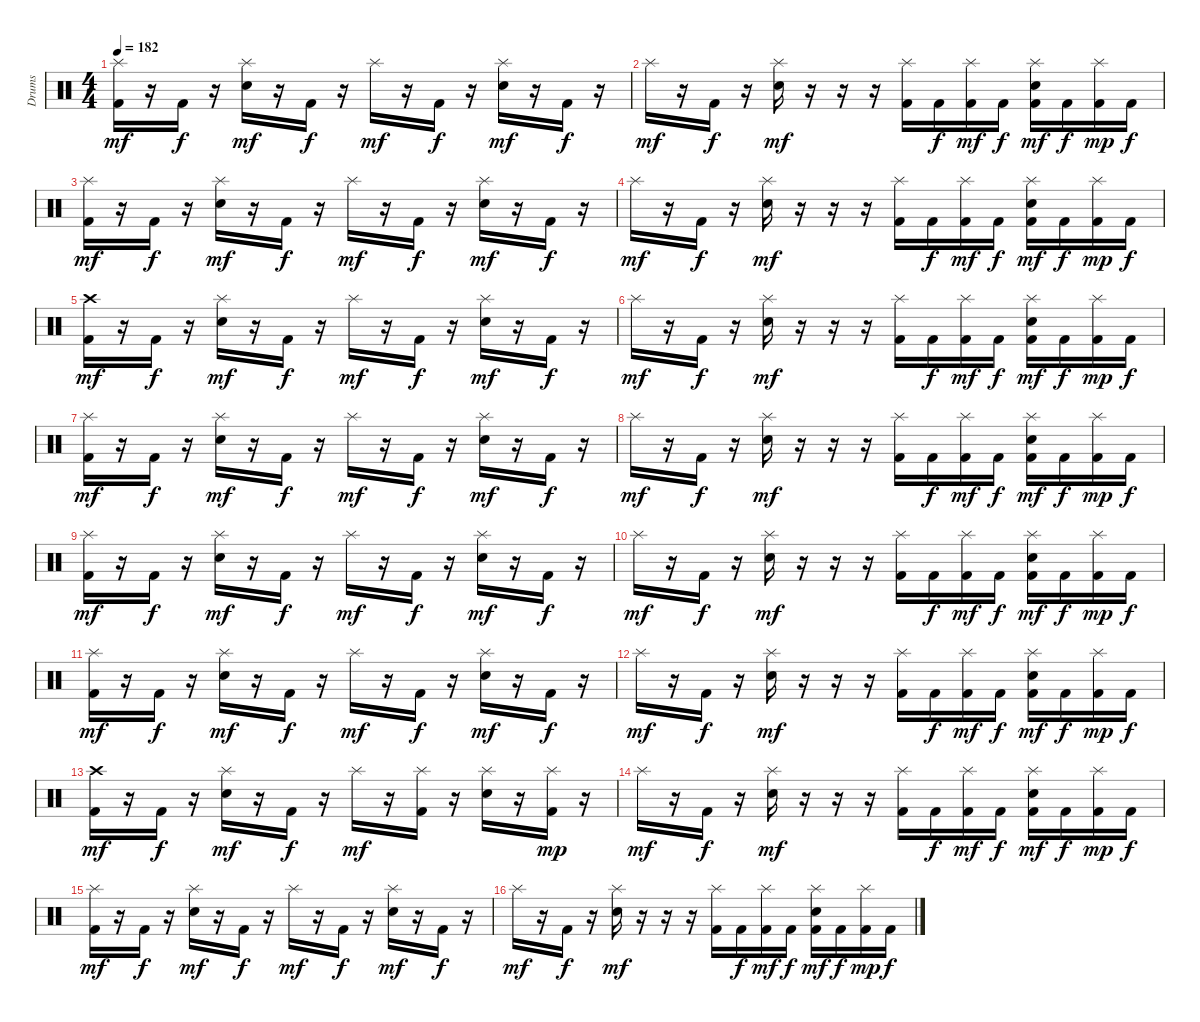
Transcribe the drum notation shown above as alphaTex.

\track ("Drums" "Drums") {instrument percussion}
\staff {score}
\articulation defaults
\ts (4 4)
\tempo 182
\clef neutral
\ks c
("Kick (hit) 2" "Splash (hit)").16{dy mf} r.16 "Kick (hit) 2".16{dy f} r.16 ("Snare (hit) 2" "Splash (hit)").16{dy mf} r.16 "Kick (hit) 2".16{dy f} r.16 "Splash (hit)".16{dy mf} r.16 "Kick (hit) 2".16{dy f} r.16 ("Snare (hit) 2" "Splash (hit)").16{dy mf} r.16 "Kick (hit) 2".16{dy f} r.16 |
"Splash (hit)".16{dy mf} r.16 "Kick (hit) 2".16{dy f} r.16 ("Snare (hit) 2" "Splash (hit)").16{dy mf} r.16 r.16 r.16 ("Kick (hit) 2" "Splash (hit)").16 "Kick (hit) 2".16{dy f} ("Kick (hit) 2" "Splash (hit)").16{dy mf} "Kick (hit) 2".16{dy f} ("Kick (hit) 2" "Snare (hit) 2" "Splash (hit)").16{dy mf} "Kick (hit) 2".16{dy f} ("Kick (hit) 2" "Splash (hit)").16{dy mp} "Kick (hit) 2".16{dy f} |
("Kick (hit) 2" "Splash (hit)").16{dy mf} r.16 "Kick (hit) 2".16{dy f} r.16 ("Snare (hit) 2" "Splash (hit)").16{dy mf} r.16 "Kick (hit) 2".16{dy f} r.16 "Splash (hit)".16{dy mf} r.16 "Kick (hit) 2".16{dy f} r.16 ("Snare (hit) 2" "Splash (hit)").16{dy mf} r.16 "Kick (hit) 2".16{dy f} r.16 |
"Splash (hit)".16{dy mf} r.16 "Kick (hit) 2".16{dy f} r.16 ("Snare (hit) 2" "Splash (hit)").16{dy mf} r.16 r.16 r.16 ("Kick (hit) 2" "Splash (hit)").16 "Kick (hit) 2".16{dy f} ("Kick (hit) 2" "Splash (hit)").16{dy mf} "Kick (hit) 2".16{dy f} ("Kick (hit) 2" "Snare (hit) 2" "Splash (hit)").16{dy mf} "Kick (hit) 2".16{dy f} ("Kick (hit) 2" "Splash (hit)").16{dy mp} "Kick (hit) 2".16{dy f} |
("Kick (hit) 2" "Crash high (hit)").16{dy mf} r.16 "Kick (hit) 2".16{dy f} r.16 ("Snare (hit) 2" "Splash (hit)").16{dy mf} r.16 "Kick (hit) 2".16{dy f} r.16 "Splash (hit)".16{dy mf} r.16 "Kick (hit) 2".16{dy f} r.16 ("Snare (hit) 2" "Splash (hit)").16{dy mf} r.16 "Kick (hit) 2".16{dy f} r.16 |
"Splash (hit)".16{dy mf} r.16 "Kick (hit) 2".16{dy f} r.16 ("Snare (hit) 2" "Splash (hit)").16{dy mf} r.16 r.16 r.16 ("Kick (hit) 2" "Splash (hit)").16 "Kick (hit) 2".16{dy f} ("Kick (hit) 2" "Splash (hit)").16{dy mf} "Kick (hit) 2".16{dy f} ("Kick (hit) 2" "Snare (hit) 2" "Splash (hit)").16{dy mf} "Kick (hit) 2".16{dy f} ("Kick (hit) 2" "Splash (hit)").16{dy mp} "Kick (hit) 2".16{dy f} |
("Kick (hit) 2" "Splash (hit)").16{dy mf} r.16 "Kick (hit) 2".16{dy f} r.16 ("Snare (hit) 2" "Splash (hit)").16{dy mf} r.16 "Kick (hit) 2".16{dy f} r.16 "Splash (hit)".16{dy mf} r.16 "Kick (hit) 2".16{dy f} r.16 ("Snare (hit) 2" "Splash (hit)").16{dy mf} r.16 "Kick (hit) 2".16{dy f} r.16 |
"Splash (hit)".16{dy mf} r.16 "Kick (hit) 2".16{dy f} r.16 ("Snare (hit) 2" "Splash (hit)").16{dy mf} r.16 r.16 r.16 ("Kick (hit) 2" "Splash (hit)").16 "Kick (hit) 2".16{dy f} ("Kick (hit) 2" "Splash (hit)").16{dy mf} "Kick (hit) 2".16{dy f} ("Kick (hit) 2" "Snare (hit) 2" "Splash (hit)").16{dy mf} "Kick (hit) 2".16{dy f} ("Kick (hit) 2" "Splash (hit)").16{dy mp} "Kick (hit) 2".16{dy f} |
("Kick (hit) 2" "Splash (hit)").16{dy mf} r.16 "Kick (hit) 2".16{dy f} r.16 ("Snare (hit) 2" "Splash (hit)").16{dy mf} r.16 "Kick (hit) 2".16{dy f} r.16 "Splash (hit)".16{dy mf} r.16 "Kick (hit) 2".16{dy f} r.16 ("Snare (hit) 2" "Splash (hit)").16{dy mf} r.16 "Kick (hit) 2".16{dy f} r.16 |
"Splash (hit)".16{dy mf} r.16 "Kick (hit) 2".16{dy f} r.16 ("Snare (hit) 2" "Splash (hit)").16{dy mf} r.16 r.16 r.16 ("Kick (hit) 2" "Splash (hit)").16 "Kick (hit) 2".16{dy f} ("Kick (hit) 2" "Splash (hit)").16{dy mf} "Kick (hit) 2".16{dy f} ("Kick (hit) 2" "Snare (hit) 2" "Splash (hit)").16{dy mf} "Kick (hit) 2".16{dy f} ("Kick (hit) 2" "Splash (hit)").16{dy mp} "Kick (hit) 2".16{dy f} |
("Kick (hit) 2" "Splash (hit)").16{dy mf} r.16 "Kick (hit) 2".16{dy f} r.16 ("Snare (hit) 2" "Splash (hit)").16{dy mf} r.16 "Kick (hit) 2".16{dy f} r.16 "Splash (hit)".16{dy mf} r.16 "Kick (hit) 2".16{dy f} r.16 ("Snare (hit) 2" "Splash (hit)").16{dy mf} r.16 "Kick (hit) 2".16{dy f} r.16 |
"Splash (hit)".16{dy mf} r.16 "Kick (hit) 2".16{dy f} r.16 ("Snare (hit) 2" "Splash (hit)").16{dy mf} r.16 r.16 r.16 ("Kick (hit) 2" "Splash (hit)").16 "Kick (hit) 2".16{dy f} ("Kick (hit) 2" "Splash (hit)").16{dy mf} "Kick (hit) 2".16{dy f} ("Kick (hit) 2" "Snare (hit) 2" "Splash (hit)").16{dy mf} "Kick (hit) 2".16{dy f} ("Kick (hit) 2" "Splash (hit)").16{dy mp} "Kick (hit) 2".16{dy f} |
("Kick (hit) 2" "Crash high (hit)").16{dy mf} r.16 "Kick (hit) 2".16{dy f} r.16 ("Snare (hit) 2" "Splash (hit)").16{dy mf} r.16 "Kick (hit) 2".16{dy f} r.16 "Splash (hit)".16{dy mf} r.16 ("Kick (hit) 2" "Splash (hit)").16 r.16 ("Snare (hit) 2" "Splash (hit)").16 r.16 ("Kick (hit) 2" "Splash (hit)").16{dy mp} r.16 |
"Splash (hit)".16{dy mf} r.16 "Kick (hit) 2".16{dy f} r.16 ("Snare (hit) 2" "Splash (hit)").16{dy mf} r.16 r.16 r.16 ("Kick (hit) 2" "Splash (hit)").16 "Kick (hit) 2".16{dy f} ("Kick (hit) 2" "Splash (hit)").16{dy mf} "Kick (hit) 2".16{dy f} ("Kick (hit) 2" "Snare (hit) 2" "Splash (hit)").16{dy mf} "Kick (hit) 2".16{dy f} ("Kick (hit) 2" "Splash (hit)").16{dy mp} "Kick (hit) 2".16{dy f} |
("Kick (hit) 2" "Splash (hit)").16{dy mf} r.16 "Kick (hit) 2".16{dy f} r.16 ("Snare (hit) 2" "Splash (hit)").16{dy mf} r.16 "Kick (hit) 2".16{dy f} r.16 "Splash (hit)".16{dy mf} r.16 "Kick (hit) 2".16{dy f} r.16 ("Snare (hit) 2" "Splash (hit)").16{dy mf} r.16 "Kick (hit) 2".16{dy f} r.16 |
"Splash (hit)".16{dy mf} r.16 "Kick (hit) 2".16{dy f} r.16 ("Snare (hit) 2" "Splash (hit)").16{dy mf} r.16 r.16 r.16 ("Kick (hit) 2" "Splash (hit)").16 "Kick (hit) 2".16{dy f} ("Kick (hit) 2" "Splash (hit)").16{dy mf} "Kick (hit) 2".16{dy f} ("Kick (hit) 2" "Snare (hit) 2" "Splash (hit)").16{dy mf} "Kick (hit) 2".16{dy f} ("Kick (hit) 2" "Splash (hit)").16{dy mp} "Kick (hit) 2".16{dy f}
